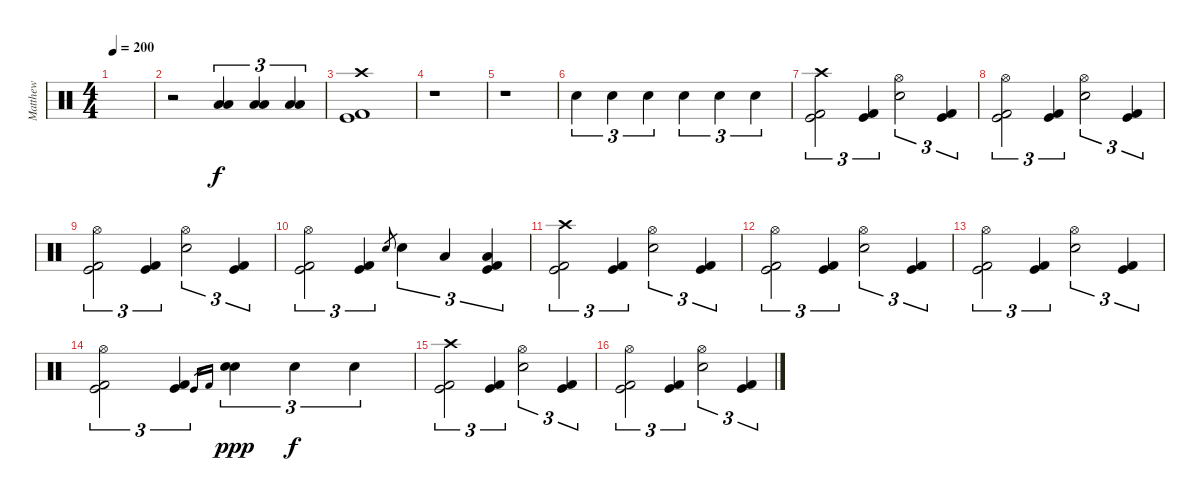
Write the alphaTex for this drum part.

\track ("Matthew" "Matthew") {instrument percussion}
\staff {score}
\articulation defaults
\ts (4 4)
\tempo 200
\clef neutral
\ks c
|
r.2 ("Low Tom (hit)" "Low Floor Tom (hit)").4{tu (3 2)} ("Low Tom (hit)" "Low Floor Tom (hit)").4{tu (3 2)} ("Low Tom (hit)" "Low Floor Tom (hit)").4{tu (3 2)} |
("Kick (hit) 2" "Kick (hit)" "Crash high (hit)").1 |
r.1 |
r.1 |
"Snare (hit) 2".4{tu (3 2)} "Snare (hit) 2".4{tu (3 2)} "Snare (hit) 2".4{tu (3 2)} "Snare (hit) 2".4{tu (3 2)} "Snare (hit) 2".4{tu (3 2)} "Snare (hit) 2".4{tu (3 2)} |
("Kick (hit) 2" "Kick (hit)" "Crash high (hit)").2{tu (3 2)} ("Kick (hit) 2" "Kick (hit)").4{tu (3 2)} ("Snare (hit) 2" "Hi-Hat (open)").2{tu (3 2)} ("Kick (hit)" "Kick (hit) 2").4{tu (3 2)} |
("Kick (hit) 2" "Kick (hit)" "Hi-Hat (open)").2{tu (3 2)} ("Kick (hit) 2" "Kick (hit)").4{tu (3 2)} ("Snare (hit) 2" "Hi-Hat (open)").2{tu (3 2)} ("Kick (hit)" "Kick (hit) 2").4{tu (3 2)} |
("Kick (hit) 2" "Kick (hit)" "Hi-Hat (open)").2{tu (3 2)} ("Kick (hit) 2" "Kick (hit)").4{tu (3 2)} ("Snare (hit) 2" "Hi-Hat (open)").2{tu (3 2)} ("Kick (hit)" "Kick (hit) 2").4{tu (3 2)} |
("Kick (hit) 2" "Kick (hit)" "Hi-Hat (open)").2{tu (3 2)} ("Kick (hit) 2" "Kick (hit)").4{tu (3 2)} "Snare (hit) 2".8{gr} "Snare (hit) 2".4{tu (3 2)} "Low Tom (hit)".4{tu (3 2)} ("Low Floor Tom (hit)" "Kick (hit) 2" "Kick (hit)").4{tu (3 2)} |
("Kick (hit) 2" "Kick (hit)" "Crash high (hit)").2{tu (3 2)} ("Kick (hit) 2" "Kick (hit)").4{tu (3 2)} ("Snare (hit) 2" "Hi-Hat (open)").2{tu (3 2)} ("Kick (hit)" "Kick (hit) 2").4{tu (3 2)} |
("Kick (hit) 2" "Kick (hit)" "Hi-Hat (open)").2{tu (3 2)} ("Kick (hit) 2" "Kick (hit)").4{tu (3 2)} ("Snare (hit) 2" "Hi-Hat (open)").2{tu (3 2)} ("Kick (hit)" "Kick (hit) 2").4{tu (3 2)} |
("Kick (hit) 2" "Kick (hit)" "Hi-Hat (open)").2{tu (3 2)} ("Kick (hit) 2" "Kick (hit)").4{tu (3 2)} ("Snare (hit) 2" "Hi-Hat (open)").2{tu (3 2)} ("Kick (hit)" "Kick (hit) 2").4{tu (3 2)} |
("Kick (hit) 2" "Kick (hit)" "Hi-Hat (open)").2{tu (3 2)} ("Kick (hit) 2" "Kick (hit)").4{tu (3 2)} "Kick (hit)".16{gr} "Kick (hit) 2".16{gr} ("Snare (hit) 2" "Snare (hit) 2").4{tu (3 2) dy ppp} "Snare (hit) 2".4{tu (3 2) dy f} "Snare (hit) 2".4{tu (3 2)} |
("Kick (hit) 2" "Kick (hit)" "Crash high (hit)").2{tu (3 2)} ("Kick (hit) 2" "Kick (hit)").4{tu (3 2)} ("Snare (hit) 2" "Hi-Hat (open)").2{tu (3 2)} ("Kick (hit)" "Kick (hit) 2").4{tu (3 2)} |
("Kick (hit) 2" "Kick (hit)" "Hi-Hat (open)").2{tu (3 2)} ("Kick (hit) 2" "Kick (hit)").4{tu (3 2)} ("Snare (hit) 2" "Hi-Hat (open)").2{tu (3 2)} ("Kick (hit)" "Kick (hit) 2").4{tu (3 2)}
